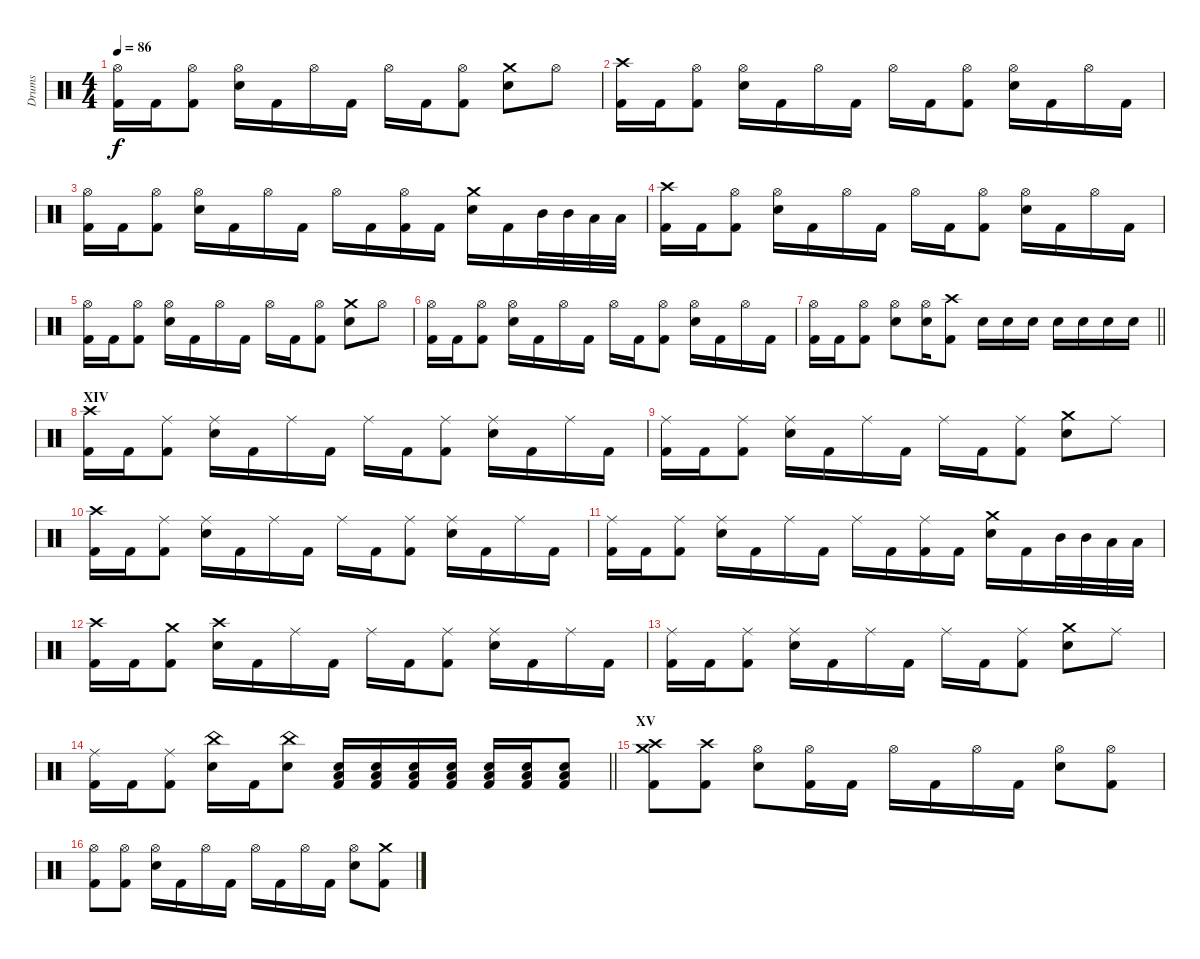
\track ("Drums" "Drums") {instrument percussion}
\staff {score}
\articulation defaults
\ts (4 4)
\tempo 86
\clef neutral
\ks c
("Hi-Hat (open)" "Kick (hit) 2").16{dy f} "Kick (hit) 2".16 ("Hi-Hat (open)" "Kick (hit) 2").8 ("Hi-Hat (open)" "Electric Snare (hit)").16 "Kick (hit) 2".16 "Hi-Hat (open)".16 "Kick (hit) 2".16 "Hi-Hat (open)".16 "Kick (hit) 2".16 ("Hi-Hat (open)" "Kick (hit) 2").8 ("Crash medium (hit)" "Electric Snare (hit)").8 "Hi-Hat (open)".8 |
("Kick (hit) 2" "Crash high (hit)").16 "Kick (hit) 2".16 ("Hi-Hat (open)" "Kick (hit) 2").8 ("Hi-Hat (open)" "Electric Snare (hit)").16 "Kick (hit) 2".16 "Hi-Hat (open)".16 "Kick (hit) 2".16 "Hi-Hat (open)".16 "Kick (hit) 2".16 ("Hi-Hat (open)" "Kick (hit) 2").8 ("Hi-Hat (open)" "Electric Snare (hit)").16 "Kick (hit) 2".16 "Hi-Hat (open)".16 "Kick (hit) 2".16 |
("Hi-Hat (open)" "Kick (hit) 2").16 "Kick (hit) 2".16 ("Hi-Hat (open)" "Kick (hit) 2").8 ("Hi-Hat (open)" "Electric Snare (hit)").16 "Kick (hit) 2".16 "Hi-Hat (open)".16 "Kick (hit) 2".16 "Hi-Hat (open)".16 "Kick (hit) 2".16 ("Hi-Hat (open)" "Kick (hit) 2").16 "Kick (hit) 2".16 ("Crash medium (hit)" "Electric Snare (hit)").16 "Kick (hit) 2".16 "Mid Tom (hit)".32 "Mid Tom (hit)".32 "Low Tom (hit)".32 "Low Tom (hit)".32 |
("Kick (hit) 2" "Crash high (hit)").16 "Kick (hit) 2".16 ("Hi-Hat (open)" "Kick (hit) 2").8 ("Hi-Hat (open)" "Electric Snare (hit)").16 "Kick (hit) 2".16 "Hi-Hat (open)".16 "Kick (hit) 2".16 "Hi-Hat (open)".16 "Kick (hit) 2".16 ("Hi-Hat (open)" "Kick (hit) 2").8 ("Hi-Hat (open)" "Electric Snare (hit)").16 "Kick (hit) 2".16 "Hi-Hat (open)".16 "Kick (hit) 2".16 |
("Hi-Hat (open)" "Kick (hit) 2").16 "Kick (hit) 2".16 ("Hi-Hat (open)" "Kick (hit) 2").8 ("Hi-Hat (open)" "Electric Snare (hit)").16 "Kick (hit) 2".16 "Hi-Hat (open)".16 "Kick (hit) 2".16 "Hi-Hat (open)".16 "Kick (hit) 2".16 ("Hi-Hat (open)" "Kick (hit) 2").8 ("Crash medium (hit)" "Electric Snare (hit)").8 "Hi-Hat (open)".8 |
("Hi-Hat (open)" "Kick (hit) 2").16 "Kick (hit) 2".16 ("Hi-Hat (open)" "Kick (hit) 2").8 ("Hi-Hat (open)" "Electric Snare (hit)").16 "Kick (hit) 2".16 "Hi-Hat (open)".16 "Kick (hit) 2".16 "Hi-Hat (open)".16 "Kick (hit) 2".16 ("Hi-Hat (open)" "Kick (hit) 2").8 ("Hi-Hat (open)" "Electric Snare (hit)").16 "Kick (hit) 2".16 "Hi-Hat (open)".16 "Kick (hit) 2".16 |
\barLineRight lightlight
("Hi-Hat (open)" "Kick (hit) 2").16 "Kick (hit) 2".16 ("Hi-Hat (open)" "Kick (hit) 2").8 ("Hi-Hat (open)" "Electric Snare (hit)").8 ("Hi-Hat (open)" "Electric Snare (hit)").16 ("Kick (hit) 2" "Crash high (hit)").8 "Electric Snare (hit)".16 "Electric Snare (hit)".16 "Electric Snare (hit)".16 "Electric Snare (hit)".16 "Electric Snare (hit)".16 "Electric Snare (hit)".16 "Electric Snare (hit)".16 |
\section ("" "XIV")
("Kick (hit) 2" "Crash high (hit)").16 "Kick (hit) 2".16 ("Ride (middle)" "Kick (hit) 2").8 ("Ride (middle)" "Electric Snare (hit)").16 "Kick (hit) 2".16 "Ride (middle)".16 "Kick (hit) 2".16 "Ride (middle)".16 "Kick (hit) 2".16 ("Ride (middle)" "Kick (hit) 2").8 ("Ride (middle)" "Electric Snare (hit)").16 "Kick (hit) 2".16 "Ride (middle)".16 "Kick (hit) 2".16 |
("Ride (middle)" "Kick (hit) 2").16 "Kick (hit) 2".16 ("Ride (middle)" "Kick (hit) 2").8 ("Ride (middle)" "Electric Snare (hit)").16 "Kick (hit) 2".16 "Ride (middle)".16 "Kick (hit) 2".16 "Ride (middle)".16 "Kick (hit) 2".16 ("Ride (middle)" "Kick (hit) 2").8 ("Crash medium (hit)" "Electric Snare (hit)").8 "Ride (middle)".8 |
("Kick (hit) 2" "Crash high (hit)").16 "Kick (hit) 2".16 ("Ride (middle)" "Kick (hit) 2").8 ("Ride (middle)" "Electric Snare (hit)").16 "Kick (hit) 2".16 "Ride (middle)".16 "Kick (hit) 2".16 "Ride (middle)".16 "Kick (hit) 2".16 ("Ride (middle)" "Kick (hit) 2").8 ("Ride (middle)" "Electric Snare (hit)").16 "Kick (hit) 2".16 "Ride (middle)".16 "Kick (hit) 2".16 |
("Ride (middle)" "Kick (hit) 2").16 "Kick (hit) 2".16 ("Ride (middle)" "Kick (hit) 2").8 ("Ride (middle)" "Electric Snare (hit)").16 "Kick (hit) 2".16 "Ride (middle)".16 "Kick (hit) 2".16 "Ride (middle)".16 "Kick (hit) 2".16 ("Ride (middle)" "Kick (hit) 2").16 "Kick (hit) 2".16 ("Crash medium (hit)" "Electric Snare (hit)").16 "Kick (hit) 2".16 "Mid Tom (hit)".32 "Mid Tom (hit)".32 "Low Tom (hit)".32 "Low Tom (hit)".32 |
("Kick (hit) 2" "Crash high (hit)").16 "Kick (hit) 2".16 ("Crash medium (hit)" "Kick (hit) 2").8 ("Crash high (hit)" "Electric Snare (hit)").16 "Kick (hit) 2".16 "Ride (middle)".16 "Kick (hit) 2".16 "Ride (middle)".16 "Kick (hit) 2".16 ("Ride (middle)" "Kick (hit) 2").8 ("Ride (middle)" "Electric Snare (hit)").16 "Kick (hit) 2".16 "Ride (middle)".16 "Kick (hit) 2".16 |
("Ride (middle)" "Kick (hit) 2").16 "Kick (hit) 2".16 ("Ride (middle)" "Kick (hit) 2").8 ("Ride (middle)" "Electric Snare (hit)").16 "Kick (hit) 2".16 "Ride (middle)".16 "Kick (hit) 2".16 "Ride (middle)".16 "Kick (hit) 2".16 ("Ride (middle)" "Kick (hit) 2").8 ("Crash medium (hit)" "Electric Snare (hit)").8 "Ride (middle)".8 |
\barLineRight lightlight
("Ride (middle)" "Kick (hit) 2").16 "Kick (hit) 2".16 ("Ride (middle)" "Kick (hit) 2").8 ("China (hit)" "Electric Snare (hit)").16 "Kick (hit) 2".16 ("China (hit)" "Electric Snare (hit)").8 ("Electric Snare (hit)" "Low Floor Tom (hit)" "Kick (hit) 2").16 ("Electric Snare (hit)" "Low Floor Tom (hit)" "Kick (hit) 2").16 ("Electric Snare (hit)" "Low Floor Tom (hit)" "Kick (hit) 2").16 ("Electric Snare (hit)" "Low Floor Tom (hit)" "Kick (hit) 2").16 ("Electric Snare (hit)" "Low Floor Tom (hit)" "Kick (hit) 2").16 ("Electric Snare (hit)" "Low Floor Tom (hit)" "Kick (hit) 2").16 ("Electric Snare (hit)" "Low Floor Tom (hit)" "Kick (hit) 2").8 |
\section ("" "XV")
("Kick (hit) 2" "Crash high (hit)" "Crash medium (hit)").8 ("Kick (hit) 2" "Crash high (hit)").8 ("Hi-Hat (open)" "Electric Snare (hit)").8 ("Hi-Hat (open)" "Kick (hit) 2").16 "Kick (hit) 2".16 "Hi-Hat (open)".16 "Kick (hit) 2".16 "Hi-Hat (open)".16 "Kick (hit) 2".16 ("Hi-Hat (open)" "Electric Snare (hit)").8 ("Hi-Hat (open)" "Kick (hit) 2").8 |
("Hi-Hat (open)" "Kick (hit) 2").8 ("Hi-Hat (open)" "Kick (hit) 2").8 ("Hi-Hat (open)" "Electric Snare (hit)").16 "Kick (hit) 2".16 "Hi-Hat (open)".16 "Kick (hit) 2".16 "Hi-Hat (open)".16 "Kick (hit) 2".16 "Hi-Hat (open)".16 "Kick (hit) 2".16 ("Hi-Hat (open)" "Electric Snare (hit)").8 ("Kick (hit) 2" "Crash medium (hit)").8
